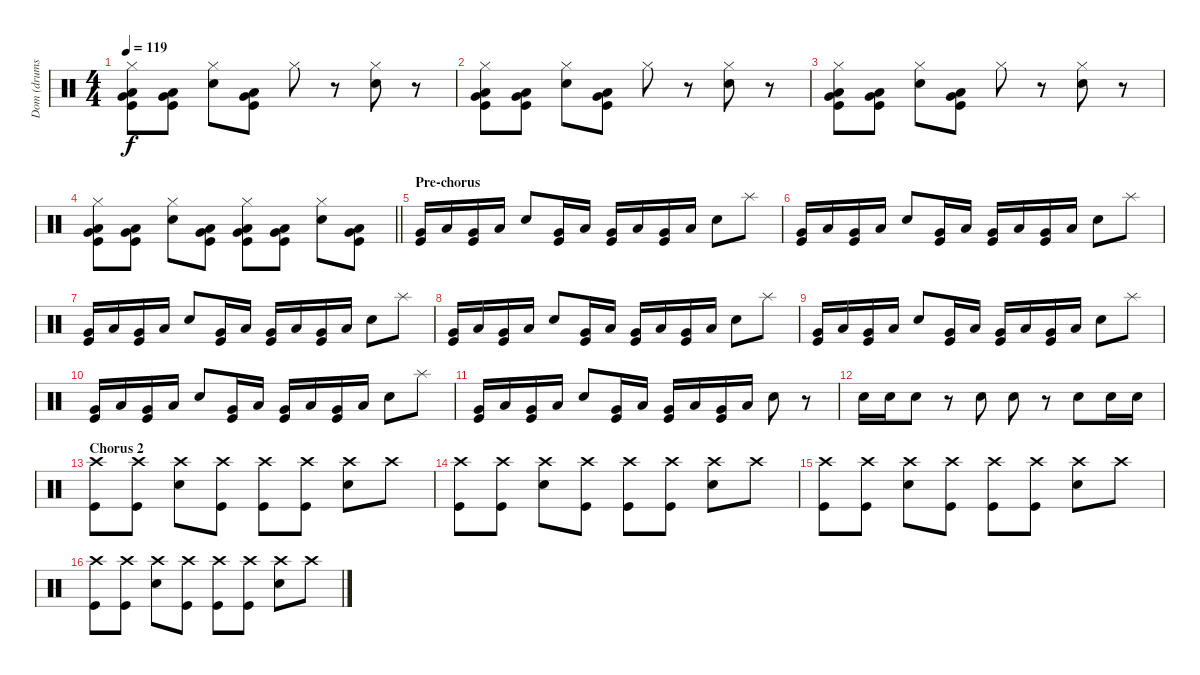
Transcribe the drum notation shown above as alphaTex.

\track ("Dom (drums)" "Dom (drums") {instrument percussion}
\staff {score}
\articulation defaults
\ts (4 4)
\tempo 119
\clef neutral
\ks c
("Hi-Hat (closed)" "Low Tom (hit)" "Very Low Tom (hit)" "Kick (hit)").8{dy f} ("Low Tom (hit)" "Very Low Tom (hit)" "Kick (hit)").8 ("Hi-Hat (closed)" "Snare (hit) 2").8 ("Low Tom (hit)" "Very Low Tom (hit)" "Kick (hit)").8 "Hi-Hat (closed)".8 r.8 ("Hi-Hat (closed)" "Snare (hit) 2").8 r.8 |
("Hi-Hat (closed)" "Low Tom (hit)" "Very Low Tom (hit)" "Kick (hit)").8 ("Low Tom (hit)" "Very Low Tom (hit)" "Kick (hit)").8 ("Hi-Hat (closed)" "Snare (hit) 2").8 ("Low Tom (hit)" "Very Low Tom (hit)" "Kick (hit)").8 "Hi-Hat (closed)".8 r.8 ("Hi-Hat (closed)" "Snare (hit) 2").8 r.8 |
("Hi-Hat (closed)" "Low Tom (hit)" "Very Low Tom (hit)" "Kick (hit)").8 ("Low Tom (hit)" "Very Low Tom (hit)" "Kick (hit)").8 ("Hi-Hat (closed)" "Snare (hit) 2").8 ("Low Tom (hit)" "Very Low Tom (hit)" "Kick (hit)").8 "Hi-Hat (closed)".8 r.8 ("Hi-Hat (closed)" "Snare (hit) 2").8 r.8 |
\barLineRight lightlight
("Hi-Hat (closed)" "Low Tom (hit)" "Very Low Tom (hit)" "Kick (hit)").8 ("Low Tom (hit)" "Very Low Tom (hit)" "Kick (hit)").8 ("Hi-Hat (closed)" "Snare (hit) 2").8 ("Low Tom (hit)" "Very Low Tom (hit)" "Kick (hit)").8 ("Hi-Hat (closed)" "Low Tom (hit)" "Very Low Tom (hit)" "Kick (hit)").8 ("Low Tom (hit)" "Very Low Tom (hit)" "Kick (hit)").8 ("Hi-Hat (closed)" "Snare (hit) 2").8 ("Low Tom (hit)" "Very Low Tom (hit)" "Kick (hit)").8 |
\section ("" "Pre-chorus")
("Very Low Tom (hit)" "Kick (hit)").16 "Low Tom (hit)".16 ("Very Low Tom (hit)" "Kick (hit)").16 "Low Tom (hit)".16 "Snare (hit) 2".8 ("Very Low Tom (hit)" "Kick (hit)").16 "Low Tom (hit)".16 ("Very Low Tom (hit)" "Kick (hit)").16 "Low Tom (hit)".16 ("Very Low Tom (hit)" "Kick (hit)").16 "Low Tom (hit)".16 "Snare (hit) 2".8 "Splash (hit)".8 |
("Very Low Tom (hit)" "Kick (hit)").16 "Low Tom (hit)".16 ("Very Low Tom (hit)" "Kick (hit)").16 "Low Tom (hit)".16 "Snare (hit) 2".8 ("Very Low Tom (hit)" "Kick (hit)").16 "Low Tom (hit)".16 ("Very Low Tom (hit)" "Kick (hit)").16 "Low Tom (hit)".16 ("Very Low Tom (hit)" "Kick (hit)").16 "Low Tom (hit)".16 "Snare (hit) 2".8 "Splash (hit)".8 |
("Very Low Tom (hit)" "Kick (hit)").16 "Low Tom (hit)".16 ("Very Low Tom (hit)" "Kick (hit)").16 "Low Tom (hit)".16 "Snare (hit) 2".8 ("Very Low Tom (hit)" "Kick (hit)").16 "Low Tom (hit)".16 ("Very Low Tom (hit)" "Kick (hit)").16 "Low Tom (hit)".16 ("Very Low Tom (hit)" "Kick (hit)").16 "Low Tom (hit)".16 "Snare (hit) 2".8 "Splash (hit)".8 |
("Very Low Tom (hit)" "Kick (hit)").16 "Low Tom (hit)".16 ("Very Low Tom (hit)" "Kick (hit)").16 "Low Tom (hit)".16 "Snare (hit) 2".8 ("Very Low Tom (hit)" "Kick (hit)").16 "Low Tom (hit)".16 ("Very Low Tom (hit)" "Kick (hit)").16 "Low Tom (hit)".16 ("Very Low Tom (hit)" "Kick (hit)").16 "Low Tom (hit)".16 "Snare (hit) 2".8 "Splash (hit)".8 |
("Very Low Tom (hit)" "Kick (hit)").16 "Low Tom (hit)".16 ("Very Low Tom (hit)" "Kick (hit)").16 "Low Tom (hit)".16 "Snare (hit) 2".8 ("Very Low Tom (hit)" "Kick (hit)").16 "Low Tom (hit)".16 ("Very Low Tom (hit)" "Kick (hit)").16 "Low Tom (hit)".16 ("Very Low Tom (hit)" "Kick (hit)").16 "Low Tom (hit)".16 "Snare (hit) 2".8 "Splash (hit)".8 |
("Very Low Tom (hit)" "Kick (hit)").16 "Low Tom (hit)".16 ("Very Low Tom (hit)" "Kick (hit)").16 "Low Tom (hit)".16 "Snare (hit) 2".8 ("Very Low Tom (hit)" "Kick (hit)").16 "Low Tom (hit)".16 ("Very Low Tom (hit)" "Kick (hit)").16 "Low Tom (hit)".16 ("Very Low Tom (hit)" "Kick (hit)").16 "Low Tom (hit)".16 "Snare (hit) 2".8 "Splash (hit)".8 |
("Very Low Tom (hit)" "Kick (hit)").16 "Low Tom (hit)".16 ("Very Low Tom (hit)" "Kick (hit)").16 "Low Tom (hit)".16 "Snare (hit) 2".8 ("Very Low Tom (hit)" "Kick (hit)").16 "Low Tom (hit)".16 ("Very Low Tom (hit)" "Kick (hit)").16 "Low Tom (hit)".16 ("Very Low Tom (hit)" "Kick (hit)").16 "Low Tom (hit)".16 "Snare (hit) 2".8 r.8 |
"Snare (hit) 2".16 "Snare (hit) 2".16 "Snare (hit) 2".8 r.8 "Snare (hit) 2".8 "Snare (hit) 2".8 r.8 "Snare (hit) 2".8 "Snare (hit) 2".16 "Snare (hit) 2".16 |
\section ("" "Chorus 2")
("Crash high (hit)" "Kick (hit)").8 ("Crash high (hit)" "Kick (hit)").8 ("Crash high (hit)" "Snare (hit) 2").8 ("Crash high (hit)" "Kick (hit)").8 ("Crash high (hit)" "Kick (hit)").8 ("Crash high (hit)" "Kick (hit)").8 ("Crash high (hit)" "Snare (hit) 2").8 "Crash high (hit)".8 |
("Crash high (hit)" "Kick (hit)").8 ("Crash high (hit)" "Kick (hit)").8 ("Crash high (hit)" "Snare (hit) 2").8 ("Crash high (hit)" "Kick (hit)").8 ("Crash high (hit)" "Kick (hit)").8 ("Crash high (hit)" "Kick (hit)").8 ("Crash high (hit)" "Snare (hit) 2").8 "Crash high (hit)".8 |
("Crash high (hit)" "Kick (hit)").8 ("Crash high (hit)" "Kick (hit)").8 ("Crash high (hit)" "Snare (hit) 2").8 ("Crash high (hit)" "Kick (hit)").8 ("Crash high (hit)" "Kick (hit)").8 ("Crash high (hit)" "Kick (hit)").8 ("Crash high (hit)" "Snare (hit) 2").8 "Crash high (hit)".8 |
("Crash high (hit)" "Kick (hit)").8 ("Crash high (hit)" "Kick (hit)").8 ("Crash high (hit)" "Snare (hit) 2").8 ("Crash high (hit)" "Kick (hit)").8 ("Crash high (hit)" "Kick (hit)").8 ("Crash high (hit)" "Kick (hit)").8 ("Crash high (hit)" "Snare (hit) 2").8 "Crash high (hit)".8
